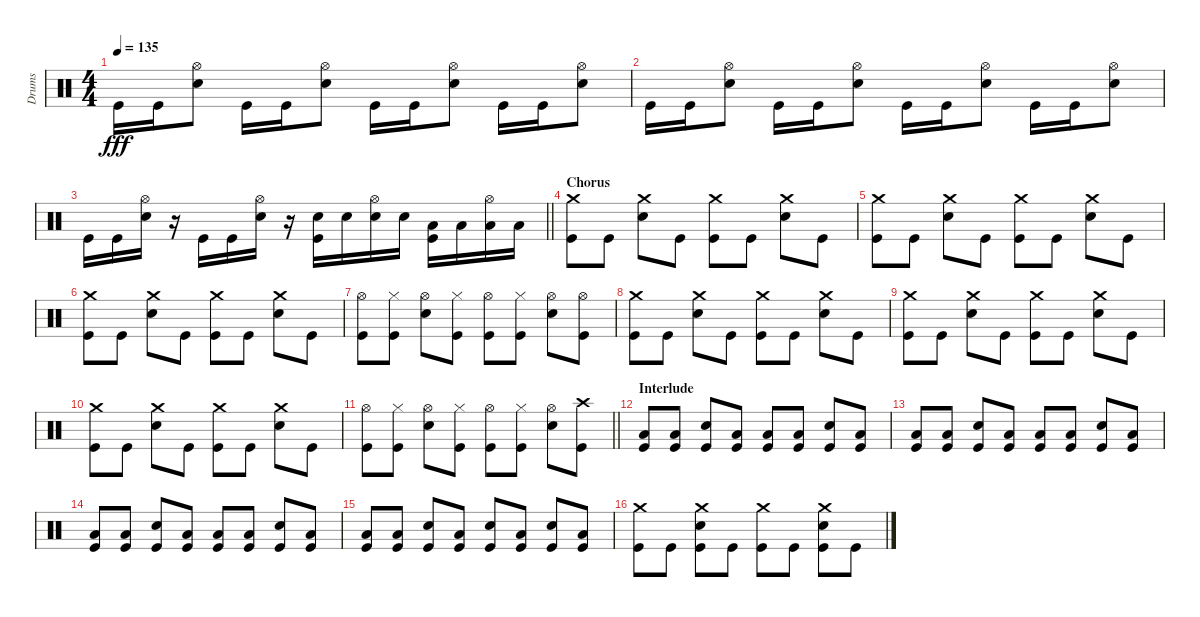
\track ("Drums" "Drums") {instrument percussion}
\staff {score}
\articulation defaults
\ts (4 4)
\tempo 135
\clef neutral
\ks c "Kick (hit)".16{dy fff} "Kick (hit)".16
("Hi-Hat (open)" "Snare (hit) 2").8 "Kick (hit)".16 "Kick (hit)".16 ("Hi-Hat (open)" "Snare (hit) 2").8 "Kick (hit)".16 "Kick (hit)".16 ("Hi-Hat (open)" "Snare (hit) 2").8 "Kick (hit)".16 "Kick (hit)".16 ("Hi-Hat (open)" "Snare (hit) 2").8 |
"Kick (hit)".16 "Kick (hit)".16 ("Hi-Hat (open)" "Snare (hit) 2").8 "Kick (hit)".16 "Kick (hit)".16 ("Hi-Hat (open)" "Snare (hit) 2").8 "Kick (hit)".16 "Kick (hit)".16 ("Hi-Hat (open)" "Snare (hit) 2").8 "Kick (hit)".16 "Kick (hit)".16 ("Hi-Hat (open)" "Snare (hit) 2").8 |
\barLineRight lightlight "Kick (hit)".16 "Kick (hit)".16
("Hi-Hat (open)" "Snare (hit) 2").16 r.16 "Kick (hit)".16 "Kick (hit)".16 ("Hi-Hat (open)" "Snare (hit) 2").16 r.16 ("Snare (hit) 2" "Kick (hit)").16 "Snare (hit) 2".16 ("Hi-Hat (open)" "Snare (hit) 2").16 "Snare (hit) 2".16 ("Low Tom (hit)" "Kick (hit)").16 "Low Tom (hit)".16 ("Hi-Hat (open)" "Low Tom (hit)").16 "Low Tom (hit)".16 |
\section ("" "Chorus")
("Crash medium (hit)" "Kick (hit)").8 "Kick (hit)".8 ("Crash medium (hit)" "Snare (hit) 2").8 "Kick (hit)".8 ("Crash medium (hit)" "Kick (hit)").8 "Kick (hit)".8 ("Crash medium (hit)" "Snare (hit) 2").8 "Kick (hit)".8 |
("Crash medium (hit)" "Kick (hit)").8 "Kick (hit)".8 ("Crash medium (hit)" "Snare (hit) 2").8 "Kick (hit)".8 ("Crash medium (hit)" "Kick (hit)").8 "Kick (hit)".8 ("Crash medium (hit)" "Snare (hit) 2").8 "Kick (hit)".8 |
("Crash medium (hit)" "Kick (hit)").8 "Kick (hit)".8 ("Crash medium (hit)" "Snare (hit) 2").8 "Kick (hit)".8 ("Crash medium (hit)" "Kick (hit)").8 "Kick (hit)".8 ("Crash medium (hit)" "Snare (hit) 2").8 "Kick (hit)".8 |
("Hi-Hat (open)" "Kick (hit)").8 ("Hi-Hat (closed)" "Kick (hit)").8 ("Hi-Hat (open)" "Snare (hit) 2").8 ("Hi-Hat (closed)" "Kick (hit)").8 ("Hi-Hat (open)" "Kick (hit)").8 ("Hi-Hat (closed)" "Kick (hit)").8 ("Hi-Hat (open)" "Snare (hit) 2").8 ("Hi-Hat (open)" "Kick (hit)").8 |
("Crash medium (hit)" "Kick (hit)").8 "Kick (hit)".8 ("Crash medium (hit)" "Snare (hit) 2").8 "Kick (hit)".8 ("Crash medium (hit)" "Kick (hit)").8 "Kick (hit)".8 ("Crash medium (hit)" "Snare (hit) 2").8 "Kick (hit)".8 |
("Crash medium (hit)" "Kick (hit)").8 "Kick (hit)".8 ("Crash medium (hit)" "Snare (hit) 2").8 "Kick (hit)".8 ("Crash medium (hit)" "Kick (hit)").8 "Kick (hit)".8 ("Crash medium (hit)" "Snare (hit) 2").8 "Kick (hit)".8 |
("Crash medium (hit)" "Kick (hit)").8 "Kick (hit)".8 ("Crash medium (hit)" "Snare (hit) 2").8 "Kick (hit)".8 ("Crash medium (hit)" "Kick (hit)").8 "Kick (hit)".8 ("Crash medium (hit)" "Snare (hit) 2").8 "Kick (hit)".8 |
\barLineRight lightlight
("Hi-Hat (open)" "Kick (hit)").8 ("Hi-Hat (closed)" "Kick (hit)").8 ("Hi-Hat (open)" "Snare (hit) 2").8 ("Hi-Hat (closed)" "Kick (hit)").8 ("Hi-Hat (open)" "Kick (hit)").8 ("Hi-Hat (closed)" "Kick (hit)").8 ("Hi-Hat (open)" "Snare (hit) 2").8 ("Crash high (hit)" "Kick (hit)").8 |
\section ("" "Interlude")
("Low Tom (hit)" "Kick (hit)").8 ("Low Tom (hit)" "Kick (hit)").8 ("Snare (hit) 2" "Kick (hit)").8 ("Low Tom (hit)" "Kick (hit)").8 ("Low Tom (hit)" "Kick (hit)").8 ("Low Tom (hit)" "Kick (hit)").8 ("Snare (hit) 2" "Kick (hit)").8 ("Low Tom (hit)" "Kick (hit)").8 |
("Low Tom (hit)" "Kick (hit)").8 ("Low Tom (hit)" "Kick (hit)").8 ("Snare (hit) 2" "Kick (hit)").8 ("Low Tom (hit)" "Kick (hit)").8 ("Low Tom (hit)" "Kick (hit)").8 ("Low Tom (hit)" "Kick (hit)").8 ("Snare (hit) 2" "Kick (hit)").8 ("Low Tom (hit)" "Kick (hit)").8 |
("Low Tom (hit)" "Kick (hit)").8 ("Low Tom (hit)" "Kick (hit)").8 ("Snare (hit) 2" "Kick (hit)").8 ("Low Tom (hit)" "Kick (hit)").8 ("Low Tom (hit)" "Kick (hit)").8 ("Low Tom (hit)" "Kick (hit)").8 ("Snare (hit) 2" "Kick (hit)").8 ("Low Tom (hit)" "Kick (hit)").8 |
("Low Tom (hit)" "Kick (hit)").8 ("Low Tom (hit)" "Kick (hit)").8 ("Snare (hit) 2" "Kick (hit)").8 ("Low Tom (hit)" "Kick (hit)").8 ("Snare (hit) 2" "Kick (hit)").8 ("Low Tom (hit)" "Kick (hit)").8 ("Snare (hit) 2" "Kick (hit)").8 ("Low Tom (hit)" "Kick (hit)").8 |
("Crash medium (hit)" "Kick (hit)").8 "Kick (hit)".8 ("Crash medium (hit)" "Snare (hit) 2" "Kick (hit)").8 "Kick (hit)".8 ("Crash medium (hit)" "Kick (hit)").8 "Kick (hit)".8 ("Crash medium (hit)" "Snare (hit) 2" "Kick (hit)").8 "Kick (hit)".8
